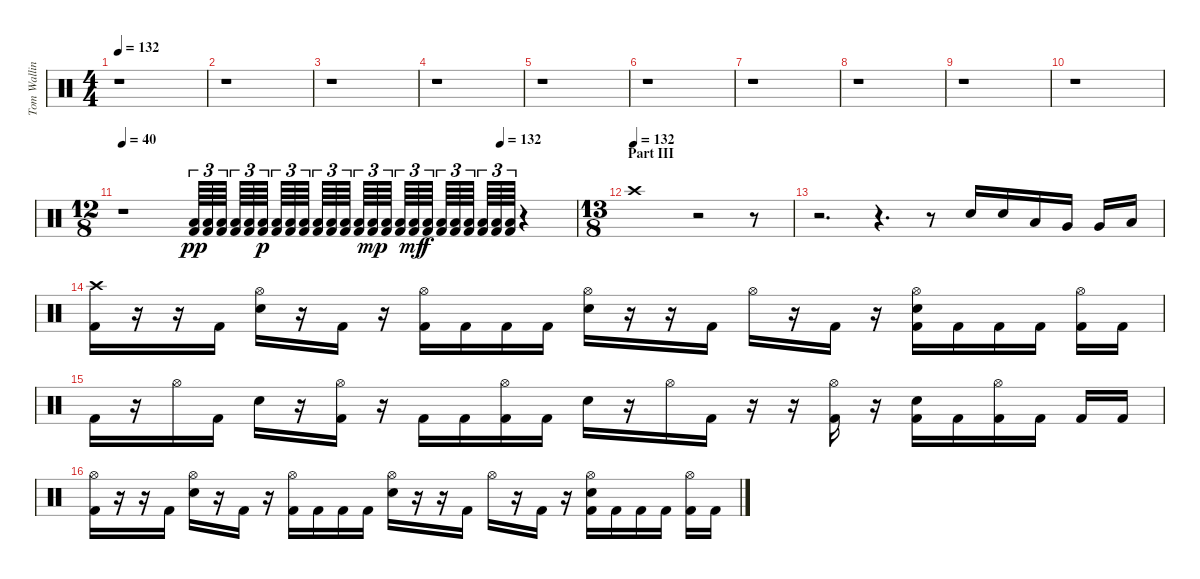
\track ("Tom Walling [Drums]" "Tom Wallin") {instrument percussion}
\staff {score}
\articulation defaults
\ts (4 4)
\tempo 132
\clef neutral
\ks c
r.1{dy f} |
r.1 |
r.1 |
r.1 |
r.1 |
r.1 |
r.1 |
r.1 |
r.1 |
r.1 |
\ts (12 8)
\tempo (132 0.8333333333333334)
\tempo 40
r.1 ("Low Tom (hit)" "Kick (hit) 2").64{tu (3 2) dy pp} ("Low Tom (hit)" "Kick (hit) 2").64{tu (3 2)} ("Low Tom (hit)" "Kick (hit) 2").64{tu (3 2)} ("Low Tom (hit)" "Kick (hit) 2").64{tu (3 2)} ("Low Tom (hit)" "Kick (hit) 2").64{tu (3 2)} ("Low Tom (hit)" "Kick (hit) 2").64{tu (3 2) dy p} ("Low Tom (hit)" "Kick (hit) 2").64{tu (3 2)} ("Low Tom (hit)" "Kick (hit) 2").64{tu (3 2)} ("Low Tom (hit)" "Kick (hit) 2").64{tu (3 2)} ("Low Tom (hit)" "Kick (hit) 2").64{tu (3 2)} ("Low Tom (hit)" "Kick (hit) 2").64{tu (3 2)} ("Low Tom (hit)" "Kick (hit) 2").64{tu (3 2)} ("Low Tom (hit)" "Kick (hit) 2").64{tu (3 2)} ("Low Tom (hit)" "Kick (hit) 2").64{tu (3 2) dy mp} ("Low Tom (hit)" "Kick (hit) 2").64{tu (3 2)} ("Low Tom (hit)" "Kick (hit) 2").64{tu (3 2)} ("Low Tom (hit)" "Kick (hit) 2").64{tu (3 2) dy mf} ("Low Tom (hit)" "Kick (hit) 2").64{tu (3 2) dy f} ("Low Tom (hit)" "Kick (hit) 2").64{tu (3 2)} ("Low Tom (hit)" "Kick (hit) 2").64{tu (3 2)} ("Low Tom (hit)" "Kick (hit) 2").64{tu (3 2)} ("Low Tom (hit)" "Kick (hit) 2").64{tu (3 2)} ("Low Tom (hit)" "Kick (hit) 2").64{tu (3 2)} ("Low Tom (hit)" "Kick (hit) 2").64{tu (3 2)} r.4 |
\ts (13 8)
\section ("" "Part III")
\tempo (132)
"Crash high (hit)".1 r.2 r.8 |
r.2{d} r.4{d} r.8 "Electric Snare (hit)".16 "Electric Snare (hit)".16 "Low Tom (hit)".16 "Very Low Tom (hit)".16 "Very Low Tom (hit)".16 "Low Floor Tom (hit)".16 |
("Crash high (hit)" "Kick (hit) 2").16 r.16 r.16 "Kick (hit) 2".16 ("Hi-Hat (open)" "Electric Snare (hit)").16 r.16 "Kick (hit) 2".16 r.16 ("Hi-Hat (open)" "Kick (hit) 2").16 "Kick (hit) 2".16 "Kick (hit) 2".16 "Kick (hit) 2".16 ("Hi-Hat (open)" "Electric Snare (hit)").16 r.16 r.16 "Kick (hit) 2".16 "Hi-Hat (open)".16 r.16 "Kick (hit) 2".16 r.16 ("Hi-Hat (open)" "Electric Snare (hit)" "Kick (hit) 2").16 "Kick (hit) 2".16 "Kick (hit) 2".16 "Kick (hit) 2".16 ("Hi-Hat (open)" "Kick (hit) 2").16 "Kick (hit) 2".16 |
"Kick (hit) 2".16 r.16 "Hi-Hat (open)".16 "Kick (hit) 2".16 "Electric Snare (hit)".16 r.16 ("Hi-Hat (open)" "Kick (hit) 2").16 r.16 "Kick (hit) 2".16 "Kick (hit) 2".16 ("Hi-Hat (open)" "Kick (hit) 2").16 "Kick (hit) 2".16 "Electric Snare (hit)".16 r.16 "Hi-Hat (open)".16 "Kick (hit) 2".16 r.16 r.16 ("Hi-Hat (open)" "Kick (hit) 2").16 r.16 ("Electric Snare (hit)" "Kick (hit) 2").16 "Kick (hit) 2".16 ("Hi-Hat (open)" "Kick (hit) 2").16 "Kick (hit) 2".16 "Kick (hit) 2".16 "Kick (hit) 2".16 |
("Hi-Hat (open)" "Kick (hit) 2").16 r.16 r.16 "Kick (hit) 2".16 ("Hi-Hat (open)" "Electric Snare (hit)").16 r.16 "Kick (hit) 2".16 r.16 ("Hi-Hat (open)" "Kick (hit) 2").16 "Kick (hit) 2".16 "Kick (hit) 2".16 "Kick (hit) 2".16 ("Hi-Hat (open)" "Electric Snare (hit)").16 r.16 r.16 "Kick (hit) 2".16 "Hi-Hat (open)".16 r.16 "Kick (hit) 2".16 r.16 ("Hi-Hat (open)" "Electric Snare (hit)" "Kick (hit) 2").16 "Kick (hit) 2".16 "Kick (hit) 2".16 "Kick (hit) 2".16 ("Hi-Hat (open)" "Kick (hit) 2").16 "Kick (hit) 2".16
